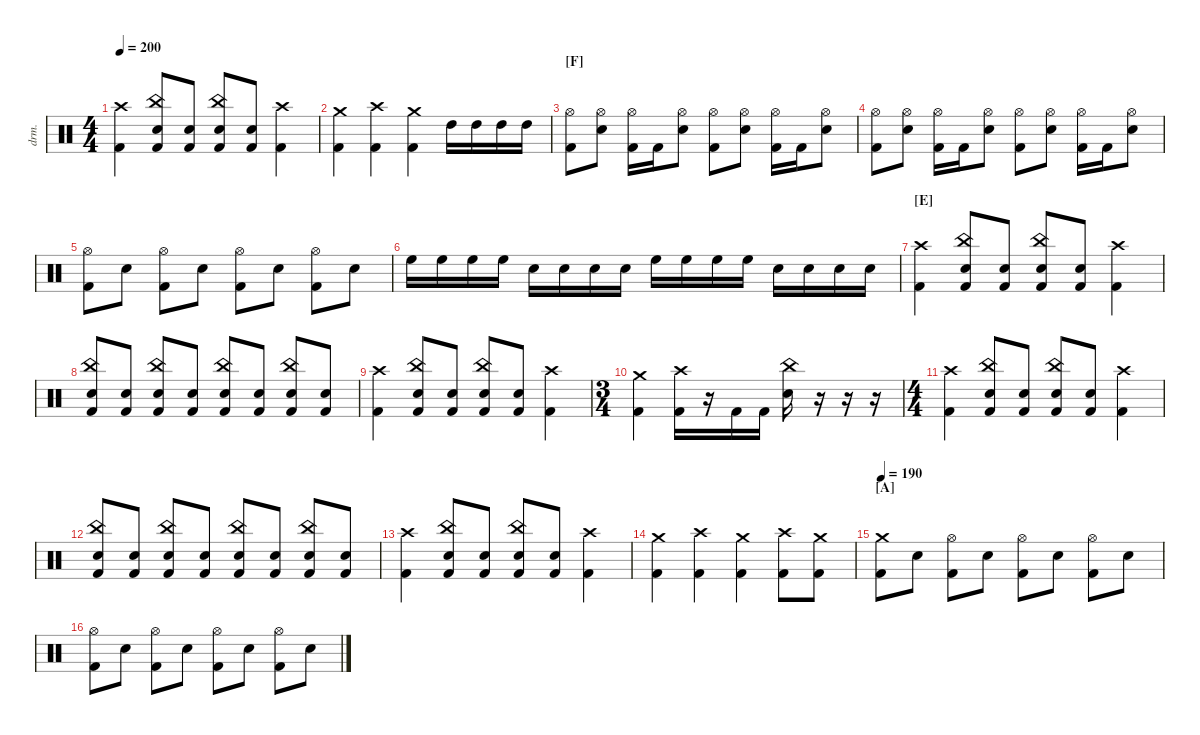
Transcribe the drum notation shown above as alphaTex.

\defaultSystemsLayout 4
\hideDynamics
\bracketExtendMode nobrackets
\otherSystemsTrackNameOrientation horizontal
\track ("Drumkit" "drm.") {instrument percussion}
\staff {score}
\articulation defaults
\ts (4 4)
\tempo 200
\clef neutral
\ks c
("Kick (hit) 2" "Crash high (hit)").4{dy mf beam Down} ("Kick (hit) 2" "Snare (hit) 2" "China (hit)").8{beam Up} ("Kick (hit) 2" "Snare (hit) 2").8{beam Up} ("Kick (hit) 2" "Snare (hit) 2" "China (hit)").8{beam Up} ("Kick (hit) 2" "Snare (hit) 2").8{beam Up} ("Kick (hit) 2" "Crash high (hit)").4{beam Down} |
("Kick (hit) 2" "Crash medium (hit)").4{beam Down} ("Kick (hit) 2" "Crash high (hit)").4{beam Down} ("Kick (hit) 2" "Crash medium (hit)").4{beam Down} "High Tom (hit)".16{beam Down} "High Tom (hit)".16{beam Down} "High Tom (hit)".16{beam Down} "High Tom (hit)".16{beam Down} |
\section ("F" "")
("Kick (hit) 2" "Hi-Hat (open)").8{beam Down} ("Snare (hit) 2" "Hi-Hat (open)").8{beam Down} ("Kick (hit) 2" "Hi-Hat (open)").16{beam Down} "Kick (hit) 2".16{beam Down} ("Snare (hit) 2" "Hi-Hat (open)").8{beam Down} ("Kick (hit) 2" "Hi-Hat (open)").8{beam Down} ("Snare (hit) 2" "Hi-Hat (open)").8{beam Down} ("Kick (hit) 2" "Hi-Hat (open)").16{beam Down} "Kick (hit) 2".16{beam Down} ("Snare (hit) 2" "Hi-Hat (open)").8{beam Down} |
("Kick (hit) 2" "Hi-Hat (open)").8{beam Down} ("Snare (hit) 2" "Hi-Hat (open)").8{beam Down} ("Kick (hit) 2" "Hi-Hat (open)").16{beam Down} "Kick (hit) 2".16{beam Down} ("Snare (hit) 2" "Hi-Hat (open)").8{beam Down} ("Kick (hit) 2" "Hi-Hat (open)").8{beam Down} ("Snare (hit) 2" "Hi-Hat (open)").8{beam Down} ("Kick (hit) 2" "Hi-Hat (open)").16{beam Down} "Kick (hit) 2".16{beam Down} ("Snare (hit) 2" "Hi-Hat (open)").8{beam Down} |
("Kick (hit) 2" "Hi-Hat (open)").8{beam Down} "Snare (hit) 2".8{beam Down} ("Kick (hit) 2" "Hi-Hat (open)").8{beam Down} "Snare (hit) 2".8{beam Down} ("Kick (hit) 2" "Hi-Hat (open)").8{beam Down} "Snare (hit) 2".8{beam Down} ("Kick (hit) 2" "Hi-Hat (open)").8{beam Down} "Snare (hit) 2".8{beam Down} |
"High Floor Tom (hit)".16{beam Down} "High Floor Tom (hit)".16{beam Down} "High Floor Tom (hit)".16{beam Down} "High Floor Tom (hit)".16{beam Down} "Snare (hit) 2".16{beam Down} "Snare (hit) 2".16{beam Down} "Snare (hit) 2".16{beam Down} "Snare (hit) 2".16{beam Down} "High Floor Tom (hit)".16{beam Down} "High Floor Tom (hit)".16{beam Down} "High Floor Tom (hit)".16{beam Down} "High Floor Tom (hit)".16{beam Down} "Snare (hit) 2".16{beam Down} "Snare (hit) 2".16{beam Down} "Snare (hit) 2".16{beam Down} "Snare (hit) 2".16{beam Down} |
\section ("E" "")
("Kick (hit) 2" "Crash high (hit)").4{beam Down} ("Kick (hit) 2" "Snare (hit) 2" "China (hit)").8{beam Up} ("Kick (hit) 2" "Snare (hit) 2").8{beam Up} ("Kick (hit) 2" "Snare (hit) 2" "China (hit)").8{beam Up} ("Kick (hit) 2" "Snare (hit) 2").8{beam Up} ("Kick (hit) 2" "Crash high (hit)").4{beam Down} |
("Kick (hit) 2" "Snare (hit) 2" "China (hit)").8{beam Up} ("Kick (hit) 2" "Snare (hit) 2").8{beam Up} ("Kick (hit) 2" "Snare (hit) 2" "China (hit)").8{beam Up} ("Kick (hit) 2" "Snare (hit) 2").8{beam Up} ("Kick (hit) 2" "Snare (hit) 2" "China (hit)").8{beam Up} ("Kick (hit) 2" "Snare (hit) 2").8{beam Up} ("Kick (hit) 2" "Snare (hit) 2" "China (hit)").8{beam Up} ("Kick (hit) 2" "Snare (hit) 2").8{beam Up} |
("Kick (hit) 2" "Crash high (hit)").4{beam Down} ("Kick (hit) 2" "Snare (hit) 2" "China (hit)").8{beam Up} ("Kick (hit) 2" "Snare (hit) 2").8{beam Up} ("Kick (hit) 2" "Snare (hit) 2" "China (hit)").8{beam Up} ("Kick (hit) 2" "Snare (hit) 2").8{beam Up} ("Kick (hit) 2" "Crash high (hit)").4{beam Down} |
\ts (3 4)
\beaming (8 2 2 2)
("Kick (hit) 2" "Crash medium (hit)").4{beam Down} ("Kick (hit) 2" "Crash high (hit)").16{beam Down} r.16{beam Down} "Kick (hit) 2".16{beam Down} "Kick (hit) 2".16{beam Down} ("Snare (hit) 2" "China (hit)").16{beam Down} r.16{beam Down} r.16{beam Down} r.16{beam Down} |
\ts (4 4)
\beaming (8 2 2 2 2)
("Kick (hit) 2" "Crash high (hit)").4{beam Down} ("Kick (hit) 2" "Snare (hit) 2" "China (hit)").8{beam Up} ("Kick (hit) 2" "Snare (hit) 2").8{beam Up} ("Kick (hit) 2" "Snare (hit) 2" "China (hit)").8{beam Up} ("Kick (hit) 2" "Snare (hit) 2").8{beam Up} ("Kick (hit) 2" "Crash high (hit)").4{beam Down} |
("Kick (hit) 2" "Snare (hit) 2" "China (hit)").8{beam Up} ("Kick (hit) 2" "Snare (hit) 2").8{beam Up} ("Kick (hit) 2" "Snare (hit) 2" "China (hit)").8{beam Up} ("Kick (hit) 2" "Snare (hit) 2").8{beam Up} ("Kick (hit) 2" "Snare (hit) 2" "China (hit)").8{beam Up} ("Kick (hit) 2" "Snare (hit) 2").8{beam Up} ("Kick (hit) 2" "Snare (hit) 2" "China (hit)").8{beam Up} ("Kick (hit) 2" "Snare (hit) 2").8{beam Up} |
("Kick (hit) 2" "Crash high (hit)").4{beam Down} ("Kick (hit) 2" "Snare (hit) 2" "China (hit)").8{beam Up} ("Kick (hit) 2" "Snare (hit) 2").8{beam Up} ("Kick (hit) 2" "Snare (hit) 2" "China (hit)").8{beam Up} ("Kick (hit) 2" "Snare (hit) 2").8{beam Up} ("Kick (hit) 2" "Crash high (hit)").4{beam Down} |
("Kick (hit) 2" "Crash medium (hit)").4{beam Down} ("Kick (hit) 2" "Crash high (hit)").4{beam Down} ("Kick (hit) 2" "Crash medium (hit)").4{beam Down} ("Kick (hit) 2" "Crash high (hit)").8{beam Down} ("Kick (hit) 2" "Crash medium (hit)").8{beam Down} |
\section ("A" "")
\tempo 190
("Kick (hit) 2" "Crash medium (hit)").8{beam Down} "Snare (hit) 2".8{beam Down} ("Kick (hit) 2" "Hi-Hat (open)").8{beam Down} "Snare (hit) 2".8{beam Down} ("Kick (hit) 2" "Hi-Hat (open)").8{beam Down} "Snare (hit) 2".8{beam Down} ("Kick (hit) 2" "Hi-Hat (open)").8{beam Down} "Snare (hit) 2".8{beam Down} |
("Kick (hit) 2" "Hi-Hat (open)").8{beam Down} "Snare (hit) 2".8{beam Down} ("Kick (hit) 2" "Hi-Hat (open)").8{beam Down} "Snare (hit) 2".8{beam Down} ("Kick (hit) 2" "Hi-Hat (open)").8{beam Down} "Snare (hit) 2".8{beam Down} ("Kick (hit) 2" "Hi-Hat (open)").8{beam Down} "Snare (hit) 2".8{beam Down}
